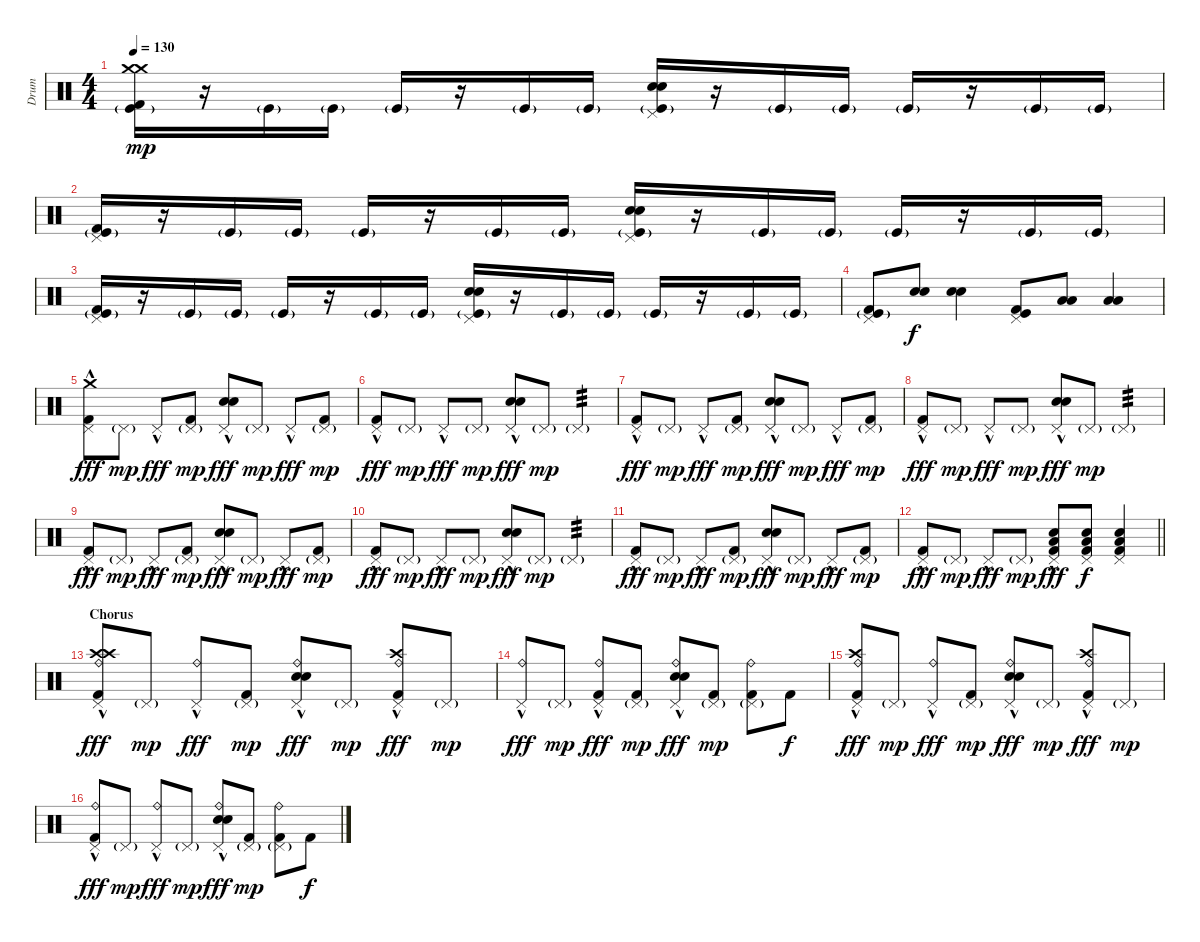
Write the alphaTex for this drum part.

\track ("Drum" "Drum") {instrument percussion}
\staff {score}
\articulation defaults
\ts (4 4)
\tempo 130
\clef neutral
\ks c
("Crash medium (hit)" "Crash medium (hit)" "Kick (hit) 2" "Kick (hit)"{g}).16{dy mp} r.16 "Kick (hit)"{g}.16 "Kick (hit)"{g}.16 "Kick (hit)"{g}.16 r.16 "Kick (hit)"{g}.16 "Kick (hit)"{g}.16 ("Pedal Hi-Hat (hit)" "Electric Snare (hit)" "Electric Snare (hit)" "Kick (hit)"{g}).16 r.16 "Kick (hit)"{g}.16 "Kick (hit)"{g}.16 "Kick (hit)"{g}.16 r.16 "Kick (hit)"{g}.16 "Kick (hit)"{g}.16 |
("Pedal Hi-Hat (hit)" "Kick (hit) 2" "Kick (hit)"{g}).16 r.16 "Kick (hit)"{g}.16 "Kick (hit)"{g}.16 "Kick (hit)"{g}.16 r.16 "Kick (hit)"{g}.16 "Kick (hit)"{g}.16 ("Pedal Hi-Hat (hit)" "Electric Snare (hit)" "Electric Snare (hit)" "Kick (hit)"{g}).16 r.16 "Kick (hit)"{g}.16 "Kick (hit)"{g}.16 "Kick (hit)"{g}.16 r.16 "Kick (hit)"{g}.16 "Kick (hit)"{g}.16 |
("Pedal Hi-Hat (hit)" "Kick (hit) 2" "Kick (hit)"{g}).16 r.16 "Kick (hit)"{g}.16 "Kick (hit)"{g}.16 "Kick (hit)"{g}.16 r.16 "Kick (hit)"{g}.16 "Kick (hit)"{g}.16 ("Pedal Hi-Hat (hit)" "Electric Snare (hit)" "Electric Snare (hit)" "Kick (hit)"{g}).16 r.16 "Kick (hit)"{g}.16 "Kick (hit)"{g}.16 "Kick (hit)"{g}.16 r.16 "Kick (hit)"{g}.16 "Kick (hit)"{g}.16 |
("Pedal Hi-Hat (hit)" "Kick (hit) 2" "Kick (hit)"{g}).8 ("Electric Snare (hit)" "Electric Snare (hit)").8{dy f} ("Electric Snare (hit)" "Electric Snare (hit)").4 ("Pedal Hi-Hat (hit)" "Kick (hit) 2" "Kick (hit)").8 ("Low Tom (hit)" "Low Floor Tom (hit)").8 ("Low Tom (hit)" "Low Floor Tom (hit)").4 |
("Crash medium (hit)" "Kick (hit) 2" "Pedal Hi-Hat (hit)"{hac}).8{dy fff} "Pedal Hi-Hat (hit)"{g}.8{dy mp} "Pedal Hi-Hat (hit)"{hac}.8{dy fff} ("Kick (hit) 2" "Pedal Hi-Hat (hit)"{g}).8{dy mp} ("Electric Snare (hit)" "Electric Snare (hit)" "Pedal Hi-Hat (hit)"{hac}).8{dy fff} "Pedal Hi-Hat (hit)"{g}.8{dy mp} "Pedal Hi-Hat (hit)"{hac}.8{dy fff} ("Kick (hit) 2" "Pedal Hi-Hat (hit)"{g}).8{dy mp} |
("Kick (hit) 2" "Pedal Hi-Hat (hit)"{hac}).8{dy fff} "Pedal Hi-Hat (hit)"{g}.8{dy mp} "Pedal Hi-Hat (hit)"{hac}.8{dy fff} "Pedal Hi-Hat (hit)"{g}.8{dy mp} ("Electric Snare (hit)" "Electric Snare (hit)" "Pedal Hi-Hat (hit)"{hac}).8{dy fff} "Pedal Hi-Hat (hit)"{g}.8{dy mp} "Pedal Hi-Hat (hit)"{g}.4{tp 3} |
("Kick (hit) 2" "Pedal Hi-Hat (hit)"{hac}).8{dy fff} "Pedal Hi-Hat (hit)"{g}.8{dy mp} "Pedal Hi-Hat (hit)"{hac}.8{dy fff} ("Kick (hit) 2" "Pedal Hi-Hat (hit)"{g}).8{dy mp} ("Electric Snare (hit)" "Electric Snare (hit)" "Pedal Hi-Hat (hit)"{hac}).8{dy fff} "Pedal Hi-Hat (hit)"{g}.8{dy mp} "Pedal Hi-Hat (hit)"{hac}.8{dy fff} ("Kick (hit) 2" "Pedal Hi-Hat (hit)"{g}).8{dy mp} |
("Kick (hit) 2" "Pedal Hi-Hat (hit)"{hac}).8{dy fff} "Pedal Hi-Hat (hit)"{g}.8{dy mp} "Pedal Hi-Hat (hit)"{hac}.8{dy fff} "Pedal Hi-Hat (hit)"{g}.8{dy mp} ("Electric Snare (hit)" "Electric Snare (hit)" "Pedal Hi-Hat (hit)"{hac}).8{dy fff} "Pedal Hi-Hat (hit)"{g}.8{dy mp} "Pedal Hi-Hat (hit)"{g}.4{tp 3} |
("Kick (hit) 2" "Pedal Hi-Hat (hit)"{hac}).8{dy fff} "Pedal Hi-Hat (hit)"{g}.8{dy mp} "Pedal Hi-Hat (hit)"{hac}.8{dy fff} ("Kick (hit) 2" "Pedal Hi-Hat (hit)"{g}).8{dy mp} ("Electric Snare (hit)" "Electric Snare (hit)" "Pedal Hi-Hat (hit)"{hac}).8{dy fff} "Pedal Hi-Hat (hit)"{g}.8{dy mp} "Pedal Hi-Hat (hit)"{hac}.8{dy fff} ("Kick (hit) 2" "Pedal Hi-Hat (hit)"{g}).8{dy mp} |
("Kick (hit) 2" "Pedal Hi-Hat (hit)"{hac}).8{dy fff} "Pedal Hi-Hat (hit)"{g}.8{dy mp} "Pedal Hi-Hat (hit)"{hac}.8{dy fff} "Pedal Hi-Hat (hit)"{g}.8{dy mp} ("Electric Snare (hit)" "Electric Snare (hit)" "Pedal Hi-Hat (hit)"{hac}).8{dy fff} "Pedal Hi-Hat (hit)"{g}.8{dy mp} "Pedal Hi-Hat (hit)"{g}.4{tp 3} |
("Kick (hit) 2" "Pedal Hi-Hat (hit)"{hac}).8{dy fff} "Pedal Hi-Hat (hit)"{g}.8{dy mp} "Pedal Hi-Hat (hit)"{hac}.8{dy fff} ("Kick (hit) 2" "Pedal Hi-Hat (hit)"{g}).8{dy mp} ("Electric Snare (hit)" "Electric Snare (hit)" "Pedal Hi-Hat (hit)"{hac}).8{dy fff} "Pedal Hi-Hat (hit)"{g}.8{dy mp} "Pedal Hi-Hat (hit)"{hac}.8{dy fff} ("Kick (hit) 2" "Pedal Hi-Hat (hit)"{g}).8{dy mp} |
\barLineRight lightlight
("Kick (hit) 2" "Pedal Hi-Hat (hit)"{hac}).8{dy fff} "Pedal Hi-Hat (hit)"{g}.8{dy mp} "Pedal Hi-Hat (hit)"{hac}.8{dy fff} "Pedal Hi-Hat (hit)"{g}.8{dy mp} ("Low Tom (hit)" "Electric Snare (hit)" "Kick (hit) 2" "Pedal Hi-Hat (hit)"{hac}).8{dy fff} ("Low Tom (hit)" "Electric Snare (hit)" "Kick (hit) 2" "Pedal Hi-Hat (hit)").8{dy f} ("Low Tom (hit)" "Electric Snare (hit)" "Kick (hit) 2" "Pedal Hi-Hat (hit)").4 |
\section ("" "Chorus")
("Crash high (hit)" "Crash high (hit)" "Ride (bell)" "Kick (hit) 2" "Pedal Hi-Hat (hit)"{hac}).8{dy fff} "Pedal Hi-Hat (hit)"{g}.8{dy mp} ("Ride (bell)" "Pedal Hi-Hat (hit)"{hac}).8{dy fff} ("Kick (hit) 2" "Pedal Hi-Hat (hit)"{g}).8{dy mp} ("Electric Snare (hit)" "Electric Snare (hit)" "Ride (bell)" "Pedal Hi-Hat (hit)"{hac}).8{dy fff} "Pedal Hi-Hat (hit)"{g}.8{dy mp} ("Crash high (hit)" "Ride (bell)" "Kick (hit) 2" "Pedal Hi-Hat (hit)"{hac}).8{dy fff} "Pedal Hi-Hat (hit)"{g}.8{dy mp} |
("Ride (bell)" "Pedal Hi-Hat (hit)"{hac}).8{dy fff} "Pedal Hi-Hat (hit)"{g}.8{dy mp} ("Ride (bell)" "Kick (hit) 2" "Pedal Hi-Hat (hit)"{hac}).8{dy fff} ("Kick (hit) 2" "Pedal Hi-Hat (hit)"{g}).8{dy mp} ("Electric Snare (hit)" "Electric Snare (hit)" "Ride (bell)" "Pedal Hi-Hat (hit)"{hac}).8{dy fff} ("Kick (hit) 2" "Pedal Hi-Hat (hit)"{g}).8{dy mp} ("Ride (bell)" "Kick (hit) 2" "Pedal Hi-Hat (hit)"{g}).8 "Kick (hit) 2".8{dy f} |
("Crash high (hit)" "Ride (bell)" "Kick (hit) 2" "Pedal Hi-Hat (hit)"{hac}).8{dy fff} "Pedal Hi-Hat (hit)"{g}.8{dy mp} ("Ride (bell)" "Pedal Hi-Hat (hit)"{hac}).8{dy fff} ("Kick (hit) 2" "Pedal Hi-Hat (hit)"{g}).8{dy mp} ("Electric Snare (hit)" "Electric Snare (hit)" "Ride (bell)" "Pedal Hi-Hat (hit)"{hac}).8{dy fff} "Pedal Hi-Hat (hit)"{g}.8{dy mp} ("Crash high (hit)" "Ride (bell)" "Kick (hit) 2" "Pedal Hi-Hat (hit)"{hac}).8{dy fff} "Pedal Hi-Hat (hit)"{g}.8{dy mp} |
("Ride (bell)" "Kick (hit) 2" "Pedal Hi-Hat (hit)"{hac}).8{dy fff} "Pedal Hi-Hat (hit)"{g}.8{dy mp} ("Ride (bell)" "Pedal Hi-Hat (hit)"{hac}).8{dy fff} "Pedal Hi-Hat (hit)"{g}.8{dy mp} ("Electric Snare (hit)" "Electric Snare (hit)" "Ride (bell)" "Pedal Hi-Hat (hit)"{hac}).8{dy fff} ("Kick (hit) 2" "Pedal Hi-Hat (hit)"{g}).8{dy mp} ("Ride (bell)" "Kick (hit) 2" "Pedal Hi-Hat (hit)"{g}).8 "Kick (hit) 2".8{dy f}
